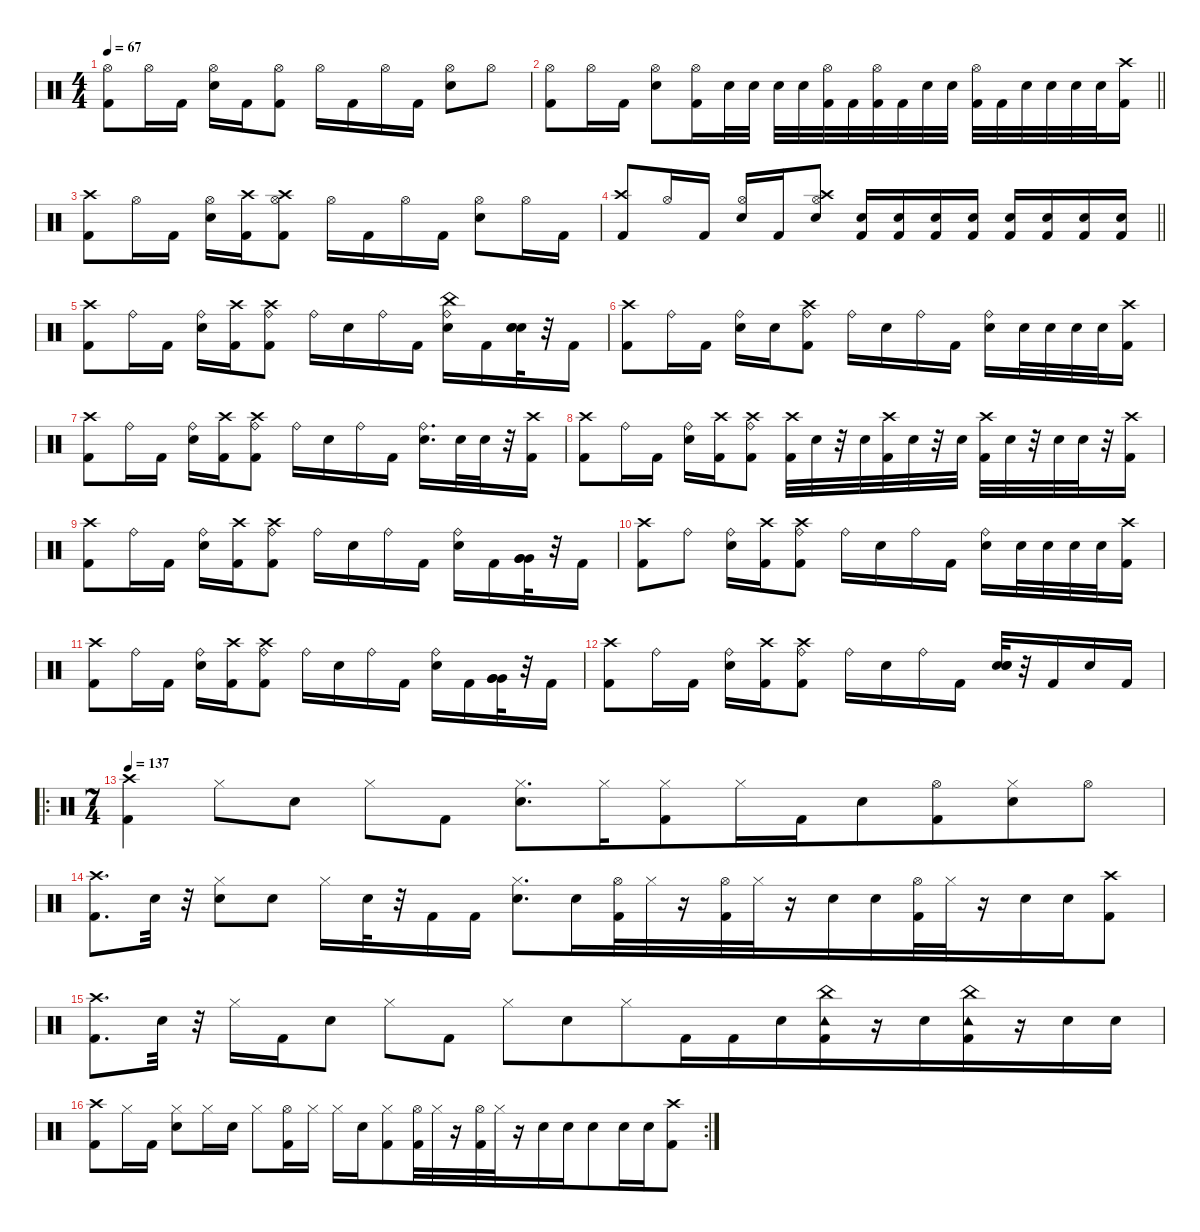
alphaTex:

\defaultSystemsLayout 4
\hideDynamics
\bracketExtendMode nobrackets
\singleTrackTrackNamePolicy hidden
\multiTrackTrackNamePolicy hidden
\firstSystemTrackNameMode fullname
\otherSystemsTrackNameOrientation horizontal
\track ("Drums" "drm.") {instrument percussion}
\staff {score}
\articulation defaults
\ts (4 4)
\tempo 67
\clef neutral
\ks c
("Hi-Hat (open)" "Kick (hit) 2").8{dy f beam Down} "Hi-Hat (open)".16{beam Down} "Kick (hit) 2".16{beam Down} ("Hi-Hat (open)" "Snare (hit) 2").16{beam Down} "Kick (hit) 2".16{beam Down} ("Hi-Hat (open)" "Kick (hit) 2").8{beam Down} "Hi-Hat (open)".16{beam Down} "Kick (hit) 2".16{beam Down} "Hi-Hat (open)".16{beam Down} "Kick (hit) 2".16{beam Down} ("Hi-Hat (open)" "Snare (hit) 2").8{beam Down} "Hi-Hat (open)".8{beam Down} |
\barLineRight lightlight
("Hi-Hat (open)" "Kick (hit) 2").8{beam Down} "Hi-Hat (open)".16{beam Down} "Kick (hit) 2".16{beam Down} ("Snare (hit) 2" "Hi-Hat (open)").8{beam Down} ("Kick (hit) 2" "Hi-Hat (open)").16{beam Down} "Snare (hit) 2".32{beam Down} "Snare (hit) 2".32{beam Down} "Snare (hit) 2".32{beam Down} "Snare (hit) 2".32{beam Down} ("Kick (hit) 2" "Hi-Hat (open)").32{beam Down} "Kick (hit) 2".32{beam Down} ("Kick (hit) 2" "Hi-Hat (open)").32{beam Down} "Kick (hit) 2".32{beam Down} "Snare (hit) 2".32{beam Down} "Snare (hit) 2".32{beam Down} ("Kick (hit) 2" "Hi-Hat (open)").32{beam Down} "Kick (hit) 2".32{beam Down} "Snare (hit) 2".32{beam Down} "Snare (hit) 2".32{beam Down} "Snare (hit) 2".32{beam Down} "Snare (hit) 2".32{beam Down} ("Crash high (hit)" "Kick (hit) 2").16{beam Down} |
("Kick (hit) 2" "Crash high (hit)").8{beam Down} "Hi-Hat (open)".16{beam Down} "Kick (hit) 2".16{beam Down} ("Hi-Hat (open)" "Snare (hit) 2").16{beam Down} ("Kick (hit) 2" "Crash high (hit)").16{beam Down} ("Hi-Hat (open)" "Kick (hit) 2" "Crash high (hit)").8{beam Down} "Hi-Hat (open)".16{beam Down} "Kick (hit) 2".16{beam Down} "Hi-Hat (open)".16{beam Down} "Kick (hit) 2".16{beam Down} ("Hi-Hat (open)" "Snare (hit) 2").8{beam Down} "Hi-Hat (open)".16{beam Down} "Kick (hit) 2".16{beam Down} |
\barLineRight lightlight
("Kick (hit) 2" "Crash high (hit)").8{beam Up} "Hi-Hat (open)".16{beam Up} "Kick (hit) 2".16{beam Up} ("Hi-Hat (open)" "Snare (hit) 2").16{beam Up} "Kick (hit) 2".16{beam Up} ("Hi-Hat (open)" "Crash high (hit)" "Snare (hit) 2").8{beam Up} ("Kick (hit) 2" "Snare (hit) 2").16{dy mp beam Up} ("Snare (hit) 2" "Kick (hit) 2").16{beam Up} ("Snare (hit) 2" "Kick (hit) 2").16{dy mf beam Up} ("Snare (hit) 2" "Kick (hit) 2").16{beam Up} ("Snare (hit) 2" "Kick (hit) 2").16{dy f beam Up} ("Snare (hit) 2" "Kick (hit) 2").16{beam Up} ("Snare (hit) 2" "Kick (hit) 2").16{dy ff beam Up} ("Snare (hit) 2" "Kick (hit) 2").16{dy fff beam Up} |
("Crash high (hit)" "Kick (hit) 2").8{beam Down} "Ride (bell)".16{dy f beam Down} "Kick (hit) 2".16{beam Down} ("Ride (bell)" "Snare (hit) 2").16{beam Down} ("Kick (hit) 2" "Crash high (hit)").16{beam Down} ("Ride (bell)" "Crash high (hit)" "Kick (hit) 2").8{beam Down} "Ride (bell)".16{beam Down} "Snare (hit) 2".16{beam Down} "Ride (bell)".16{beam Down} "Kick (hit) 2".16{beam Down} ("Snare (hit) 2" "Ride (bell)" "China (hit)").16{beam Down} "Kick (hit) 2".16{beam Down} ("Snare (hit) 2" "Snare (hit) 2" "Snare (hit) 2").32{beam Down} r.32{beam Down} "Kick (hit) 2".16{beam Down} |
("Kick (hit) 2" "Crash high (hit)").8{beam Down} "Ride (bell)".16{beam Down} "Kick (hit) 2".16{beam Down} ("Ride (bell)" "Snare (hit) 2").16{beam Down} "Snare (hit) 2".16{beam Down} ("Ride (bell)" "Crash high (hit)" "Kick (hit) 2").8{beam Down} "Ride (bell)".16{beam Down} "Snare (hit) 2".16{beam Down} "Ride (bell)".16{beam Down} "Kick (hit) 2".16{beam Down} ("Ride (bell)" "Snare (hit) 2").16{beam Down} "Snare (hit) 2".32{beam Down} "Snare (hit) 2".32{beam Down} "Snare (hit) 2".32{beam Down} "Snare (hit) 2".32{beam Down} ("Crash high (hit)" "Kick (hit) 2").16{beam Down} |
("Kick (hit) 2" "Crash high (hit)").8{beam Down} "Ride (bell)".16{beam Down} "Kick (hit) 2".16{beam Down} ("Ride (bell)" "Snare (hit) 2").16{beam Down} ("Crash high (hit)" "Kick (hit) 2").16{beam Down} ("Ride (bell)" "Crash high (hit)" "Kick (hit) 2").8{beam Down} "Ride (bell)".16{beam Down} "Snare (hit) 2".16{beam Down} "Ride (bell)".16{beam Down} "Kick (hit) 2".16{beam Down} ("Snare (hit) 2" "Ride (bell)").16{d beam Down} "Snare (hit) 2".32{beam Down} "Snare (hit) 2".32{beam Down} r.32{beam Down} ("Kick (hit) 2" "Crash high (hit)").16{beam Down} |
("Crash high (hit)" "Kick (hit) 2").8{beam Down} "Ride (bell)".16{beam Down} "Kick (hit) 2".16{beam Down} ("Ride (bell)" "Snare (hit) 2").16{beam Down} ("Crash high (hit)" "Kick (hit) 2").16{beam Down} ("Ride (bell)" "Crash high (hit)" "Kick (hit) 2").8{beam Down} ("Kick (hit) 2" "Crash high (hit)").32{beam Down} "Snare (hit) 2".32{beam Down} r.32{beam Down} "Snare (hit) 2".32{beam Down} ("Kick (hit) 2" "Crash high (hit)").32{beam Down} "Snare (hit) 2".32{beam Down} r.32{beam Down} "Snare (hit) 2".32{beam Down} ("Kick (hit) 2" "Crash high (hit)").32{beam Down} "Snare (hit) 2".32{beam Down} r.32{beam Down} "Snare (hit) 2".32{beam Down} "Snare (hit) 2".32{beam Down} r.32{beam Down} ("Crash high (hit)" "Kick (hit) 2").16{beam Down} |
("Kick (hit) 2" "Crash high (hit)").8{beam Down} "Ride (bell)".16{beam Down} "Kick (hit) 2".16{beam Down} ("Ride (bell)" "Snare (hit) 2").16{beam Down} ("Kick (hit) 2" "Crash high (hit)").16{beam Down} ("Ride (bell)" "Crash high (hit)" "Kick (hit) 2").8{beam Down} "Ride (bell)".16{beam Down} "Snare (hit) 2".16{beam Down} "Ride (bell)".16{beam Down} "Kick (hit) 2".16{beam Down} ("Snare (hit) 2" "Ride (bell)").16{beam Down} "Kick (hit) 2".16{beam Down} ("Very Low Tom (hit)" "Very Low Tom (hit)" "Very Low Tom (hit)").32{beam Down} r.32{beam Down} "Kick (hit) 2".16{beam Down} |
("Kick (hit) 2" "Crash high (hit)").8{beam Down} "Ride (bell)".8{beam Down} ("Ride (bell)" "Snare (hit) 2").16{beam Down} ("Kick (hit) 2" "Crash high (hit)").16{beam Down} ("Ride (bell)" "Crash high (hit)" "Kick (hit) 2").8{beam Down} "Ride (bell)".16{beam Down} "Snare (hit) 2".16{beam Down} "Ride (bell)".16{beam Down} "Kick (hit) 2".16{beam Down} ("Ride (bell)" "Snare (hit) 2").16{beam Down} "Snare (hit) 2".32{beam Down} "Snare (hit) 2".32{beam Down} "Snare (hit) 2".32{beam Down} "Snare (hit) 2".32{beam Down} ("Crash high (hit)" "Kick (hit) 2").16{beam Down} |
("Crash high (hit)" "Kick (hit) 2").8{beam Down} "Ride (bell)".16{beam Down} "Kick (hit) 2".16{beam Down} ("Ride (bell)" "Snare (hit) 2").16{beam Down} ("Kick (hit) 2" "Crash high (hit)").16{beam Down} ("Ride (bell)" "Crash high (hit)" "Kick (hit) 2").8{beam Down} "Ride (bell)".16{beam Down} "Snare (hit) 2".16{beam Down} "Ride (bell)".16{beam Down} "Kick (hit) 2".16{beam Down} ("Snare (hit) 2" "Ride (bell)").16{beam Down} "Kick (hit) 2".16{beam Down} ("Very Low Tom (hit)" "Very Low Tom (hit)" "Very Low Tom (hit)").32{beam Down} r.32{beam Down} "Kick (hit) 2".16{beam Down} |
("Kick (hit) 2" "Crash high (hit)").8{beam Down} "Ride (bell)".16{beam Down} "Kick (hit) 2".16{beam Down} ("Ride (bell)" "Snare (hit) 2").16{beam Down} ("Kick (hit) 2" "Crash high (hit)").16{beam Down} ("Ride (bell)" "Crash high (hit)" "Kick (hit) 2").8{beam Down} "Ride (bell)".16{beam Down} "Snare (hit) 2".16{beam Down} "Ride (bell)".16{beam Down} "Kick (hit) 2".16{beam Down} ("Snare (hit) 2" "Snare (hit) 2" "Snare (hit) 2").32{beam Up} r.32{beam Up} "Kick (hit) 2".16{beam Up} "Snare (hit) 2".16{beam Up} "Kick (hit) 2".16{beam Up} |
\ro
\ts (7 4)
\beaming (8 2 2 2 8)
\tempo 137
("Crash high (hit)" "Kick (hit) 2").4{beam Down} "Hi-Hat (closed)".8{beam Down} "Snare (hit) 2".8{beam Down} "Hi-Hat (closed)".8{beam Down} "Kick (hit) 2".8{beam Down} ("Snare (hit) 2" "Hi-Hat (closed)").8{d beam Down} "Hi-Hat (closed)".16{beam Down} ("Kick (hit) 2" "Hi-Hat (closed)").8{beam Down} "Hi-Hat (closed)".16{beam Down} "Kick (hit) 2".16{beam Down} "Snare (hit) 2".8{beam Down} ("Hi-Hat (open)" "Kick (hit) 2").8{beam Down} ("Hi-Hat (closed)" "Snare (hit) 2").8{beam Down} "Hi-Hat (open)".8{beam Down} |
("Kick (hit) 2" "Crash high (hit)").8{d beam Down} "Snare (hit) 2".32{dy p beam Down} r.32{beam Down} ("Hi-Hat (closed)" "Snare (hit) 2").8{dy f beam Down} "Snare (hit) 2".8{beam Down} "Hi-Hat (closed)".16{beam Down} "Snare (hit) 2".32{dy p beam Down} r.32{beam Down} "Kick (hit) 2".16{dy f beam Down} "Kick (hit) 2".16{beam Down} ("Snare (hit) 2" "Hi-Hat (closed)").8{d beam Down} "Snare (hit) 2".16{beam Down} ("Kick (hit) 2" "Hi-Hat (open)").32{beam Down} "Hi-Hat (closed)".32{dy mf beam Down} r.16{beam Down} ("Kick (hit) 2" "Hi-Hat (open)").32{dy f beam Down} "Hi-Hat (closed)".32{dy mf beam Down} r.16{beam Down} "Snare (hit) 2".16{dy f beam Down} "Snare (hit) 2".16{beam Down} ("Hi-Hat (open)" "Kick (hit) 2").32{beam Down} "Hi-Hat (closed)".32{dy mf beam Down} r.16{beam Down} "Snare (hit) 2".16{dy f beam Down} "Snare (hit) 2".16{beam Down} ("Crash high (hit)" "Kick (hit) 2").8{beam Down} |
("Kick (hit) 2" "Crash high (hit)").8{d beam Down} "Snare (hit) 2".32{dy p beam Down} r.32{beam Down} "Hi-Hat (closed)".16{dy f beam Down} "Kick (hit) 2".16{beam Down} "Snare (hit) 2".8{beam Down} "Hi-Hat (closed)".8{beam Down} "Kick (hit) 2".8{beam Down} "Hi-Hat (closed)".8{beam Down} "Snare (hit) 2".8{beam Down} "Hi-Hat (closed)".8{beam Down} "Kick (hit) 2".16{beam Down} "Kick (hit) 2".16{beam Down} "Snare (hit) 2".16{beam Down} ("Kick (hit) 2" "China (hit)" "Tambourine (hit)").16{beam Down} r.16{beam Down} "Snare (hit) 2".16{beam Down} ("Kick (hit) 2" "China (hit)" "Tambourine (hit)").16{beam Down} r.16{beam Down} "Snare (hit) 2".16{beam Down} "Snare (hit) 2".16{beam Down} |
\rc 2
("Crash high (hit)" "Kick (hit) 2").8{beam Down} "Hi-Hat (closed)".16{beam Down} "Kick (hit) 2".16{beam Down} ("Hi-Hat (closed)" "Snare (hit) 2").8{beam Down} "Hi-Hat (closed)".16{beam Down} "Snare (hit) 2".16{beam Down} "Hi-Hat (closed)".8{beam Down} ("Kick (hit) 2" "Hi-Hat (open)").16{beam Down} "Hi-Hat (closed)".16{beam Down} "Hi-Hat (closed)".16{beam Down} "Snare (hit) 2".16{beam Down} ("Kick (hit) 2" "Hi-Hat (closed)").8{dy mp beam Down} ("Kick (hit) 2" "Hi-Hat (open)").32{dy f beam Down} "Hi-Hat (closed)".32{dy mf beam Down} r.16{beam Down} ("Kick (hit) 2" "Hi-Hat (open)").32{dy f beam Down} "Hi-Hat (closed)".32{dy mf beam Down} r.16{beam Down} "Snare (hit) 2".16{dy f beam Down} "Snare (hit) 2".16{beam Down} "Snare (hit) 2".8{beam Down} "Snare (hit) 2".16{beam Down} "Snare (hit) 2".16{beam Down} ("Kick (hit) 2" "Crash high (hit)").8{beam Down}
